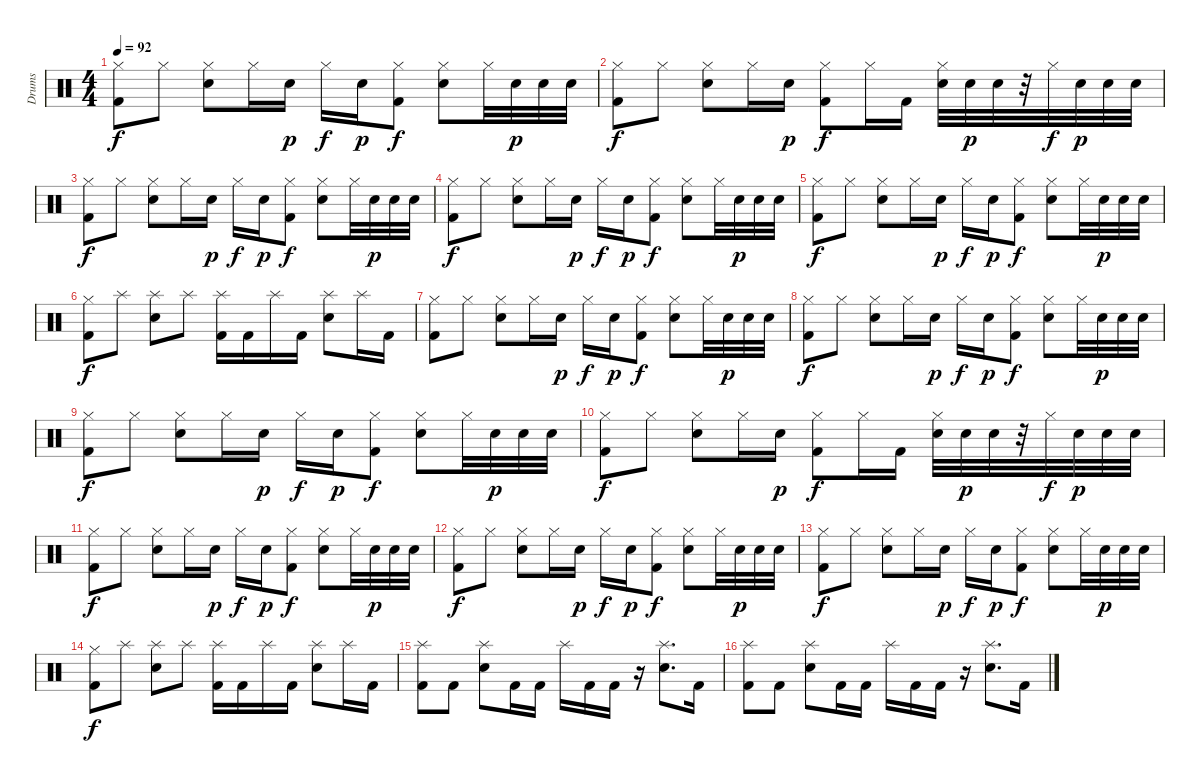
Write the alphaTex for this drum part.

\track ("Drums" "Drums") {instrument percussion}
\staff {score}
\articulation defaults
\ts (4 4)
\tempo 92
\clef neutral
\ks c
("Kick (hit) 2" "Hi-Hat (closed)").8{dy f} "Hi-Hat (closed)".8 ("Electric Snare (hit)" "Hi-Hat (closed)").8 "Hi-Hat (closed)".16 "Electric Snare (hit)".16{dy p} "Hi-Hat (closed)".16{dy f} "Electric Snare (hit)".16{dy p} ("Kick (hit) 2" "Hi-Hat (closed)").8{dy f} ("Electric Snare (hit)" "Hi-Hat (closed)").8 "Hi-Hat (closed)".32 "Electric Snare (hit)".32{dy p} "Electric Snare (hit)".32 "Electric Snare (hit)".32 |
("Kick (hit) 2" "Hi-Hat (closed)").8{dy f} "Hi-Hat (closed)".8 ("Electric Snare (hit)" "Hi-Hat (closed)").8 "Hi-Hat (closed)".16 "Electric Snare (hit)".16{dy p} ("Hi-Hat (closed)" "Kick (hit) 2").8{dy f} "Hi-Hat (closed)".16 "Kick (hit) 2".16 ("Hi-Hat (closed)" "Electric Snare (hit)").32 "Electric Snare (hit)".32{dy p} "Electric Snare (hit)".32 r.32 "Hi-Hat (closed)".32{dy f} "Electric Snare (hit)".32{dy p} "Electric Snare (hit)".32 "Electric Snare (hit)".32 |
("Kick (hit) 2" "Hi-Hat (closed)").8{dy f} "Hi-Hat (closed)".8 ("Electric Snare (hit)" "Hi-Hat (closed)").8 "Hi-Hat (closed)".16 "Electric Snare (hit)".16{dy p} "Hi-Hat (closed)".16{dy f} "Electric Snare (hit)".16{dy p} ("Kick (hit) 2" "Hi-Hat (closed)").8{dy f} ("Electric Snare (hit)" "Hi-Hat (closed)").8 "Hi-Hat (closed)".32 "Electric Snare (hit)".32{dy p} "Electric Snare (hit)".32 "Electric Snare (hit)".32 |
("Kick (hit) 2" "Hi-Hat (closed)").8{dy f} "Hi-Hat (closed)".8 ("Electric Snare (hit)" "Hi-Hat (closed)").8 "Hi-Hat (closed)".16 "Electric Snare (hit)".16{dy p} "Hi-Hat (closed)".16{dy f} "Electric Snare (hit)".16{dy p} ("Kick (hit) 2" "Hi-Hat (closed)").8{dy f} ("Electric Snare (hit)" "Hi-Hat (closed)").8 "Hi-Hat (closed)".32 "Electric Snare (hit)".32{dy p} "Electric Snare (hit)".32 "Electric Snare (hit)".32 |
("Kick (hit) 2" "Hi-Hat (closed)").8{dy f} "Hi-Hat (closed)".8 ("Electric Snare (hit)" "Hi-Hat (closed)").8 "Hi-Hat (closed)".16 "Electric Snare (hit)".16{dy p} "Hi-Hat (closed)".16{dy f} "Electric Snare (hit)".16{dy p} ("Kick (hit) 2" "Hi-Hat (closed)").8{dy f} ("Electric Snare (hit)" "Hi-Hat (closed)").8 "Hi-Hat (closed)".32 "Electric Snare (hit)".32{dy p} "Electric Snare (hit)".32 "Electric Snare (hit)".32 |
("Hi-Hat (closed)" "Kick (hit) 2").8{dy f} "Splash (hit)".8 ("Electric Snare (hit)" "Splash (hit)").8 "Splash (hit)".8 ("Kick (hit) 2" "Splash (hit)").16 "Kick (hit) 2".16 "Splash (hit)".16 "Kick (hit) 2".16 ("Electric Snare (hit)" "Splash (hit)").8 "Splash (hit)".16 "Kick (hit) 2".16 |
("Kick (hit) 2" "Hi-Hat (closed)").8 "Hi-Hat (closed)".8 ("Electric Snare (hit)" "Hi-Hat (closed)").8 "Hi-Hat (closed)".16 "Electric Snare (hit)".16{dy p} "Hi-Hat (closed)".16{dy f} "Electric Snare (hit)".16{dy p} ("Kick (hit) 2" "Hi-Hat (closed)").8{dy f} ("Electric Snare (hit)" "Hi-Hat (closed)").8 "Hi-Hat (closed)".32 "Electric Snare (hit)".32{dy p} "Electric Snare (hit)".32 "Electric Snare (hit)".32 |
("Kick (hit) 2" "Hi-Hat (closed)").8{dy f} "Hi-Hat (closed)".8 ("Electric Snare (hit)" "Hi-Hat (closed)").8 "Hi-Hat (closed)".16 "Electric Snare (hit)".16{dy p} "Hi-Hat (closed)".16{dy f} "Electric Snare (hit)".16{dy p} ("Kick (hit) 2" "Hi-Hat (closed)").8{dy f} ("Electric Snare (hit)" "Hi-Hat (closed)").8 "Hi-Hat (closed)".32 "Electric Snare (hit)".32{dy p} "Electric Snare (hit)".32 "Electric Snare (hit)".32 |
("Kick (hit) 2" "Hi-Hat (closed)").8{dy f} "Hi-Hat (closed)".8 ("Electric Snare (hit)" "Hi-Hat (closed)").8 "Hi-Hat (closed)".16 "Electric Snare (hit)".16{dy p} "Hi-Hat (closed)".16{dy f} "Electric Snare (hit)".16{dy p} ("Kick (hit) 2" "Hi-Hat (closed)").8{dy f} ("Electric Snare (hit)" "Hi-Hat (closed)").8 "Hi-Hat (closed)".32 "Electric Snare (hit)".32{dy p} "Electric Snare (hit)".32 "Electric Snare (hit)".32 |
("Kick (hit) 2" "Hi-Hat (closed)").8{dy f} "Hi-Hat (closed)".8 ("Electric Snare (hit)" "Hi-Hat (closed)").8 "Hi-Hat (closed)".16 "Electric Snare (hit)".16{dy p} ("Hi-Hat (closed)" "Kick (hit) 2").8{dy f} "Hi-Hat (closed)".16 "Kick (hit) 2".16 ("Hi-Hat (closed)" "Electric Snare (hit)").32 "Electric Snare (hit)".32{dy p} "Electric Snare (hit)".32 r.32 "Hi-Hat (closed)".32{dy f} "Electric Snare (hit)".32{dy p} "Electric Snare (hit)".32 "Electric Snare (hit)".32 |
("Kick (hit) 2" "Hi-Hat (closed)").8{dy f} "Hi-Hat (closed)".8 ("Electric Snare (hit)" "Hi-Hat (closed)").8 "Hi-Hat (closed)".16 "Electric Snare (hit)".16{dy p} "Hi-Hat (closed)".16{dy f} "Electric Snare (hit)".16{dy p} ("Kick (hit) 2" "Hi-Hat (closed)").8{dy f} ("Electric Snare (hit)" "Hi-Hat (closed)").8 "Hi-Hat (closed)".32 "Electric Snare (hit)".32{dy p} "Electric Snare (hit)".32 "Electric Snare (hit)".32 |
("Kick (hit) 2" "Hi-Hat (closed)").8{dy f} "Hi-Hat (closed)".8 ("Electric Snare (hit)" "Hi-Hat (closed)").8 "Hi-Hat (closed)".16 "Electric Snare (hit)".16{dy p} "Hi-Hat (closed)".16{dy f} "Electric Snare (hit)".16{dy p} ("Kick (hit) 2" "Hi-Hat (closed)").8{dy f} ("Electric Snare (hit)" "Hi-Hat (closed)").8 "Hi-Hat (closed)".32 "Electric Snare (hit)".32{dy p} "Electric Snare (hit)".32 "Electric Snare (hit)".32 |
("Kick (hit) 2" "Hi-Hat (closed)").8{dy f} "Hi-Hat (closed)".8 ("Electric Snare (hit)" "Hi-Hat (closed)").8 "Hi-Hat (closed)".16 "Electric Snare (hit)".16{dy p} "Hi-Hat (closed)".16{dy f} "Electric Snare (hit)".16{dy p} ("Kick (hit) 2" "Hi-Hat (closed)").8{dy f} ("Electric Snare (hit)" "Hi-Hat (closed)").8 "Hi-Hat (closed)".32 "Electric Snare (hit)".32{dy p} "Electric Snare (hit)".32 "Electric Snare (hit)".32 |
("Hi-Hat (closed)" "Kick (hit) 2").8{dy f} "Splash (hit)".8 ("Electric Snare (hit)" "Splash (hit)").8 "Splash (hit)".8 ("Kick (hit) 2" "Splash (hit)").16 "Kick (hit) 2".16 "Splash (hit)".16 "Kick (hit) 2".16 ("Electric Snare (hit)" "Splash (hit)").8 "Splash (hit)".16 "Kick (hit) 2".16 |
("Splash (hit)" "Kick (hit) 2").8 "Kick (hit) 2".8 ("Splash (hit)" "Electric Snare (hit)").8 "Kick (hit) 2".16 "Kick (hit) 2".16 "Splash (hit)".16 "Kick (hit) 2".16 "Kick (hit) 2".16 r.16 ("Splash (hit)" "Electric Snare (hit)").8{d} "Kick (hit) 2".16 |
("Splash (hit)" "Kick (hit) 2").8 "Kick (hit) 2".8 ("Splash (hit)" "Electric Snare (hit)").8 "Kick (hit) 2".16 "Kick (hit) 2".16 "Splash (hit)".16 "Kick (hit) 2".16 "Kick (hit) 2".16 r.16 ("Splash (hit)" "Electric Snare (hit)").8{d} "Kick (hit) 2".16
